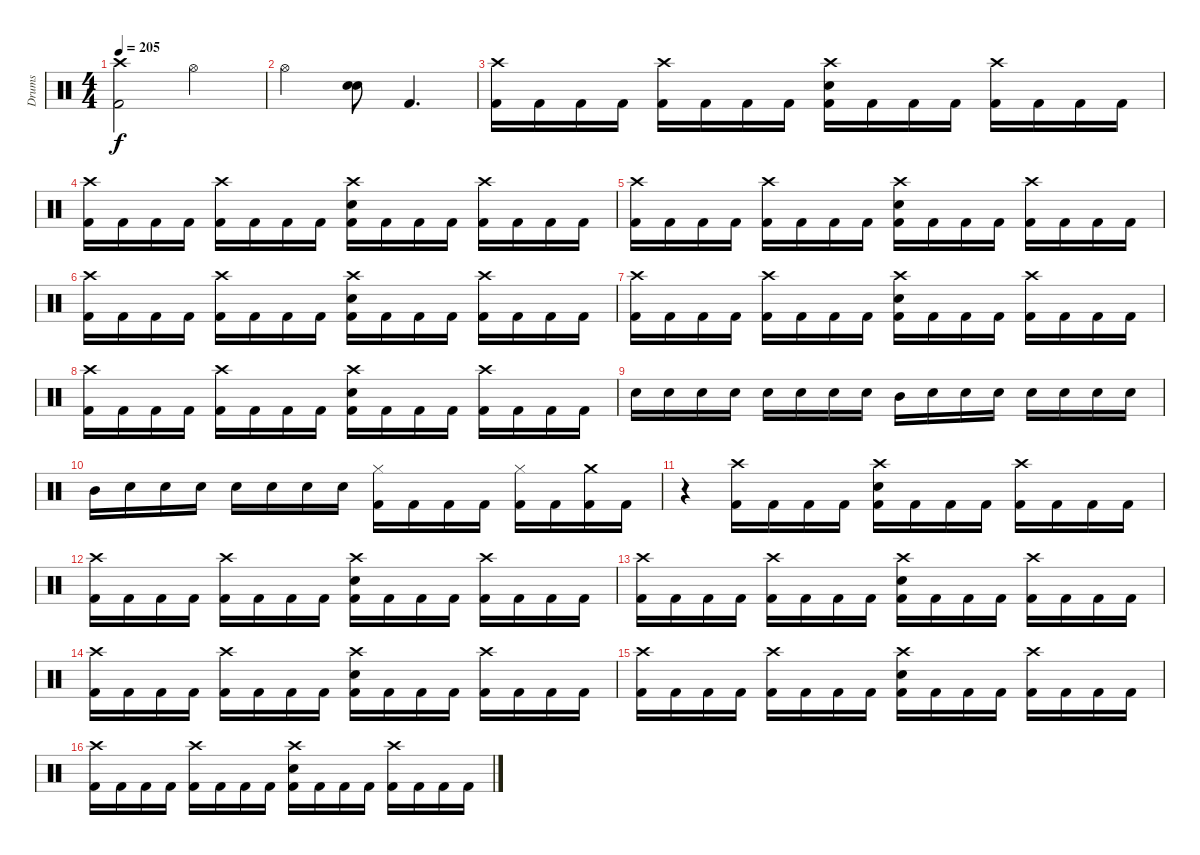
\track ("Drums" "Drums") {instrument percussion bank 169}
\staff {score}
\articulation defaults
\ts (4 4)
\tempo 205
\clef neutral
\ks c
("Crash high (hit)" "Kick (hit) 2").2{dy f} "Hi-Hat (open)".2 |
"Hi-Hat (open)".2 ("Snare (hit) 2" "Snare (hit) 2").8 "Kick (hit) 2".4{d} |
("Crash high (hit)" "Kick (hit) 2").16 "Kick (hit) 2".16 "Kick (hit) 2".16 "Kick (hit) 2".16 ("Crash high (hit)" "Kick (hit) 2").16 "Kick (hit) 2".16 "Kick (hit) 2".16 "Kick (hit) 2".16 ("Crash high (hit)" "Snare (hit) 2" "Kick (hit) 2").16 "Kick (hit) 2".16 "Kick (hit) 2".16 "Kick (hit) 2".16 ("Crash high (hit)" "Kick (hit) 2").16 "Kick (hit) 2".16 "Kick (hit) 2".16 "Kick (hit) 2".16 |
("Crash high (hit)" "Kick (hit) 2").16 "Kick (hit) 2".16 "Kick (hit) 2".16 "Kick (hit) 2".16 ("Crash high (hit)" "Kick (hit) 2").16 "Kick (hit) 2".16 "Kick (hit) 2".16 "Kick (hit) 2".16 ("Crash high (hit)" "Snare (hit) 2" "Kick (hit) 2").16 "Kick (hit) 2".16 "Kick (hit) 2".16 "Kick (hit) 2".16 ("Crash high (hit)" "Kick (hit) 2").16 "Kick (hit) 2".16 "Kick (hit) 2".16 "Kick (hit) 2".16 |
("Crash high (hit)" "Kick (hit) 2").16 "Kick (hit) 2".16 "Kick (hit) 2".16 "Kick (hit) 2".16 ("Crash high (hit)" "Kick (hit) 2").16 "Kick (hit) 2".16 "Kick (hit) 2".16 "Kick (hit) 2".16 ("Crash high (hit)" "Snare (hit) 2" "Kick (hit) 2").16 "Kick (hit) 2".16 "Kick (hit) 2".16 "Kick (hit) 2".16 ("Crash high (hit)" "Kick (hit) 2").16 "Kick (hit) 2".16 "Kick (hit) 2".16 "Kick (hit) 2".16 |
("Crash high (hit)" "Kick (hit) 2").16 "Kick (hit) 2".16 "Kick (hit) 2".16 "Kick (hit) 2".16 ("Crash high (hit)" "Kick (hit) 2").16 "Kick (hit) 2".16 "Kick (hit) 2".16 "Kick (hit) 2".16 ("Crash high (hit)" "Snare (hit) 2" "Kick (hit) 2").16 "Kick (hit) 2".16 "Kick (hit) 2".16 "Kick (hit) 2".16 ("Crash high (hit)" "Kick (hit) 2").16 "Kick (hit) 2".16 "Kick (hit) 2".16 "Kick (hit) 2".16 |
("Crash high (hit)" "Kick (hit) 2").16 "Kick (hit) 2".16 "Kick (hit) 2".16 "Kick (hit) 2".16 ("Crash high (hit)" "Kick (hit) 2").16 "Kick (hit) 2".16 "Kick (hit) 2".16 "Kick (hit) 2".16 ("Crash high (hit)" "Snare (hit) 2" "Kick (hit) 2").16 "Kick (hit) 2".16 "Kick (hit) 2".16 "Kick (hit) 2".16 ("Crash high (hit)" "Kick (hit) 2").16 "Kick (hit) 2".16 "Kick (hit) 2".16 "Kick (hit) 2".16 |
("Crash high (hit)" "Kick (hit) 2").16 "Kick (hit) 2".16 "Kick (hit) 2".16 "Kick (hit) 2".16 ("Crash high (hit)" "Kick (hit) 2").16 "Kick (hit) 2".16 "Kick (hit) 2".16 "Kick (hit) 2".16 ("Crash high (hit)" "Snare (hit) 2" "Kick (hit) 2").16 "Kick (hit) 2".16 "Kick (hit) 2".16 "Kick (hit) 2".16 ("Crash high (hit)" "Kick (hit) 2").16 "Kick (hit) 2".16 "Kick (hit) 2".16 "Kick (hit) 2".16 |
"Snare (hit) 2".16 "Snare (hit) 2".16 "Snare (hit) 2".16 "Snare (hit) 2".16 "Snare (hit) 2".16 "Snare (hit) 2".16 "Snare (hit) 2".16 "Snare (hit) 2".16 "Mid Tom (hit)".16 "Snare (hit) 2".16 "Snare (hit) 2".16 "Snare (hit) 2".16 "Snare (hit) 2".16 "Snare (hit) 2".16 "Snare (hit) 2".16 "Snare (hit) 2".16 |
"Mid Tom (hit)".16 "Snare (hit) 2".16 "Snare (hit) 2".16 "Snare (hit) 2".16 "Snare (hit) 2".16 "Snare (hit) 2".16 "Snare (hit) 2".16 "Snare (hit) 2".16 ("Hi-Hat (closed)" "Kick (hit) 2").16 "Kick (hit) 2".16 "Kick (hit) 2".16 "Kick (hit) 2".16 ("Hi-Hat (closed)" "Kick (hit) 2").16 "Kick (hit) 2".16 ("Crash medium (hit)"{x} "Kick (hit) 2").16 "Kick (hit) 2".16 |
r.4 ("Crash high (hit)" "Kick (hit) 2").16 "Kick (hit) 2".16 "Kick (hit) 2".16 "Kick (hit) 2".16 ("Crash high (hit)" "Snare (hit) 2" "Kick (hit) 2").16 "Kick (hit) 2".16 "Kick (hit) 2".16 "Kick (hit) 2".16 ("Crash high (hit)" "Kick (hit) 2").16 "Kick (hit) 2".16 "Kick (hit) 2".16 "Kick (hit) 2".16 |
("Crash high (hit)" "Kick (hit) 2").16 "Kick (hit) 2".16 "Kick (hit) 2".16 "Kick (hit) 2".16 ("Crash high (hit)" "Kick (hit) 2").16 "Kick (hit) 2".16 "Kick (hit) 2".16 "Kick (hit) 2".16 ("Crash high (hit)" "Snare (hit) 2" "Kick (hit) 2").16 "Kick (hit) 2".16 "Kick (hit) 2".16 "Kick (hit) 2".16 ("Crash high (hit)" "Kick (hit) 2").16 "Kick (hit) 2".16 "Kick (hit) 2".16 "Kick (hit) 2".16 |
("Crash high (hit)" "Kick (hit) 2").16 "Kick (hit) 2".16 "Kick (hit) 2".16 "Kick (hit) 2".16 ("Crash high (hit)" "Kick (hit) 2").16 "Kick (hit) 2".16 "Kick (hit) 2".16 "Kick (hit) 2".16 ("Crash high (hit)" "Snare (hit) 2" "Kick (hit) 2").16 "Kick (hit) 2".16 "Kick (hit) 2".16 "Kick (hit) 2".16 ("Crash high (hit)" "Kick (hit) 2").16 "Kick (hit) 2".16 "Kick (hit) 2".16 "Kick (hit) 2".16 |
("Crash high (hit)" "Kick (hit) 2").16 "Kick (hit) 2".16 "Kick (hit) 2".16 "Kick (hit) 2".16 ("Crash high (hit)" "Kick (hit) 2").16 "Kick (hit) 2".16 "Kick (hit) 2".16 "Kick (hit) 2".16 ("Crash high (hit)" "Snare (hit) 2" "Kick (hit) 2").16 "Kick (hit) 2".16 "Kick (hit) 2".16 "Kick (hit) 2".16 ("Crash high (hit)" "Kick (hit) 2").16 "Kick (hit) 2".16 "Kick (hit) 2".16 "Kick (hit) 2".16 |
("Crash high (hit)" "Kick (hit) 2").16 "Kick (hit) 2".16 "Kick (hit) 2".16 "Kick (hit) 2".16 ("Crash high (hit)" "Kick (hit) 2").16 "Kick (hit) 2".16 "Kick (hit) 2".16 "Kick (hit) 2".16 ("Crash high (hit)" "Snare (hit) 2" "Kick (hit) 2").16 "Kick (hit) 2".16 "Kick (hit) 2".16 "Kick (hit) 2".16 ("Crash high (hit)" "Kick (hit) 2").16 "Kick (hit) 2".16 "Kick (hit) 2".16 "Kick (hit) 2".16 |
("Crash high (hit)" "Kick (hit) 2").16 "Kick (hit) 2".16 "Kick (hit) 2".16 "Kick (hit) 2".16 ("Crash high (hit)" "Kick (hit) 2").16 "Kick (hit) 2".16 "Kick (hit) 2".16 "Kick (hit) 2".16 ("Crash high (hit)" "Snare (hit) 2" "Kick (hit) 2").16 "Kick (hit) 2".16 "Kick (hit) 2".16 "Kick (hit) 2".16 ("Crash high (hit)" "Kick (hit) 2").16 "Kick (hit) 2".16 "Kick (hit) 2".16 "Kick (hit) 2".16
